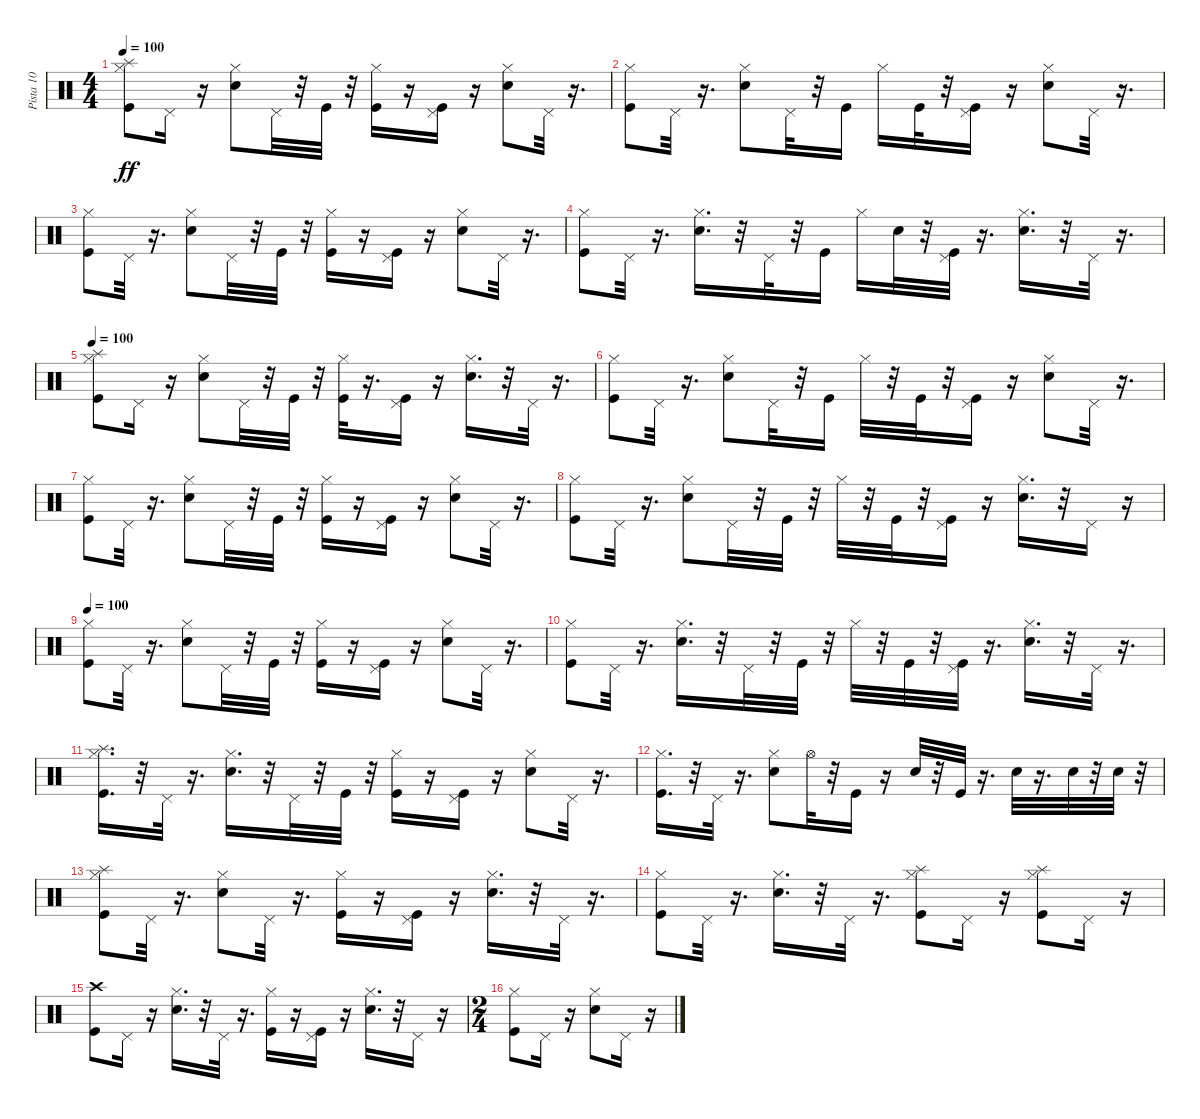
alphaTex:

\track ("Pista 10" "Pista 10") {instrument percussion}
\staff {score}
\articulation defaults
\ts (4 4)
\tempo 100
\clef neutral
\ks c
("Kick (hit)" "Hi-Hat (closed)" "Splash (hit)").8{dy ff} "Pedal Hi-Hat (hit)".16 r.16 ("Snare (hit) 2" "Hi-Hat (closed)").8 "Pedal Hi-Hat (hit)".32 r.32 "Kick (hit)".32 r.32 ("Kick (hit)" "Hi-Hat (closed)").16 r.16 ("Kick (hit)" "Pedal Hi-Hat (hit)").16 r.16 ("Snare (hit) 2" "Hi-Hat (closed)").8 "Pedal Hi-Hat (hit)".32 r.16{d} |
("Kick (hit)" "Hi-Hat (closed)").8 "Pedal Hi-Hat (hit)".32 r.16{d} ("Snare (hit) 2" "Hi-Hat (closed)").8 "Pedal Hi-Hat (hit)".32 r.32 "Kick (hit)".16 "Hi-Hat (closed)".16 "Kick (hit)".32 r.32 ("Kick (hit)" "Pedal Hi-Hat (hit)").16 r.16 ("Snare (hit) 2" "Hi-Hat (closed)").8 "Pedal Hi-Hat (hit)".32 r.16{d} |
("Kick (hit)" "Hi-Hat (closed)").8 "Pedal Hi-Hat (hit)".32 r.16{d} ("Snare (hit) 2" "Hi-Hat (closed)").8 "Pedal Hi-Hat (hit)".32 r.32 "Kick (hit)".32 r.32 ("Kick (hit)" "Hi-Hat (closed)").16 r.16 ("Kick (hit)" "Pedal Hi-Hat (hit)").16 r.16 ("Snare (hit) 2" "Hi-Hat (closed)").8 "Pedal Hi-Hat (hit)".32 r.16{d} |
("Kick (hit)" "Hi-Hat (closed)").8 "Pedal Hi-Hat (hit)".32 r.16{d} ("Snare (hit) 2" "Hi-Hat (closed)").16{d} r.32 "Pedal Hi-Hat (hit)".32 r.32 "Kick (hit)".16 "Hi-Hat (closed)".16 "Snare (hit) 2".32 r.32 ("Kick (hit)" "Pedal Hi-Hat (hit)").32 r.16{d} ("Snare (hit) 2" "Hi-Hat (closed)").16{d} r.32 "Pedal Hi-Hat (hit)".32 r.16{d} |
\tempo 100
("Kick (hit)" "Hi-Hat (closed)" "Splash (hit)").8 "Pedal Hi-Hat (hit)".16 r.16 ("Snare (hit) 2" "Hi-Hat (closed)").8 "Pedal Hi-Hat (hit)".32 r.32 "Kick (hit)".32 r.32 ("Kick (hit)" "Hi-Hat (closed)").32 r.16{d} ("Kick (hit)" "Pedal Hi-Hat (hit)").16 r.16 ("Snare (hit) 2" "Hi-Hat (closed)").16{d} r.32 "Pedal Hi-Hat (hit)".32 r.16{d} |
("Kick (hit)" "Hi-Hat (closed)").8 "Pedal Hi-Hat (hit)".32 r.16{d} ("Snare (hit) 2" "Hi-Hat (closed)").8 "Pedal Hi-Hat (hit)".32 r.32 "Kick (hit)".16 "Hi-Hat (closed)".32 r.32 "Kick (hit)".32 r.32 ("Kick (hit)" "Pedal Hi-Hat (hit)").16 r.16 ("Snare (hit) 2" "Hi-Hat (closed)").8 "Pedal Hi-Hat (hit)".32 r.16{d} |
("Kick (hit)" "Hi-Hat (closed)").8 "Pedal Hi-Hat (hit)".32 r.16{d} ("Snare (hit) 2" "Hi-Hat (closed)").8 "Pedal Hi-Hat (hit)".32 r.32 "Kick (hit)".32 r.32 ("Kick (hit)" "Hi-Hat (closed)").16 r.16 ("Kick (hit)" "Pedal Hi-Hat (hit)").16 r.16 ("Snare (hit) 2" "Hi-Hat (closed)").8 "Pedal Hi-Hat (hit)".32 r.16{d} |
("Kick (hit)" "Hi-Hat (closed)").8 "Pedal Hi-Hat (hit)".32 r.16{d} ("Snare (hit) 2" "Hi-Hat (closed)").8 "Pedal Hi-Hat (hit)".32 r.32 "Kick (hit)".32 r.32 "Hi-Hat (closed)".32 r.32 "Kick (hit)".32 r.32 ("Kick (hit)" "Pedal Hi-Hat (hit)").16 r.16 ("Snare (hit) 2" "Hi-Hat (closed)").16{d} r.32 "Pedal Hi-Hat (hit)".16 r.16 |
\tempo 100
("Kick (hit)" "Hi-Hat (closed)").8 "Pedal Hi-Hat (hit)".32 r.16{d} ("Snare (hit) 2" "Hi-Hat (closed)").8 "Pedal Hi-Hat (hit)".32 r.32 "Kick (hit)".32 r.32 ("Kick (hit)" "Hi-Hat (closed)").16 r.16 ("Kick (hit)" "Pedal Hi-Hat (hit)").16 r.16 ("Snare (hit) 2" "Hi-Hat (closed)").8 "Pedal Hi-Hat (hit)".32 r.16{d} |
("Kick (hit)" "Hi-Hat (closed)").8 "Pedal Hi-Hat (hit)".32 r.16{d} ("Snare (hit) 2" "Hi-Hat (closed)").16{d} r.32 "Pedal Hi-Hat (hit)".32 r.32 "Kick (hit)".32 r.32 "Hi-Hat (closed)".32 r.32 "Kick (hit)".32 r.32 ("Kick (hit)" "Pedal Hi-Hat (hit)").32 r.16{d} ("Snare (hit) 2" "Hi-Hat (closed)").16{d} r.32 "Pedal Hi-Hat (hit)".32 r.16{d} |
("Kick (hit)" "Splash (hit)" "Hi-Hat (closed)").16{d} r.32 "Pedal Hi-Hat (hit)".32 r.16{d} ("Snare (hit) 2" "Hi-Hat (closed)").16{d} r.32 "Pedal Hi-Hat (hit)".32 r.32 "Kick (hit)".32 r.32 ("Kick (hit)" "Hi-Hat (closed)").16 r.16 ("Kick (hit)" "Pedal Hi-Hat (hit)").16 r.16 ("Snare (hit) 2" "Hi-Hat (closed)").8 "Pedal Hi-Hat (hit)".32 r.16{d} |
("Kick (hit)" "Hi-Hat (closed)").16{d} r.32 "Pedal Hi-Hat (hit)".32 r.16{d} ("Snare (hit) 2" "Hi-Hat (closed)").8 "Hi-Hat (open)".32 r.32 "Kick (hit)".16 r.16 "Snare (hit) 2".32 r.32 "Kick (hit)".32 r.16{d} "Snare (hit) 2".32 r.16{d} "Snare (hit) 2".32 r.32 "Snare (hit) 2".32 r.32 |
("Splash (hit)" "Hi-Hat (closed)" "Kick (hit)").8 "Pedal Hi-Hat (hit)".32 r.16{d} ("Hi-Hat (closed)" "Snare (hit) 2").8 "Pedal Hi-Hat (hit)".32 r.16{d} ("Hi-Hat (closed)" "Kick (hit)").16 r.16 ("Pedal Hi-Hat (hit)" "Kick (hit)").16 r.16 ("Hi-Hat (closed)" "Snare (hit) 2").16{d} r.32 "Pedal Hi-Hat (hit)".32 r.16{d} |
("Hi-Hat (closed)" "Kick (hit)").8 "Pedal Hi-Hat (hit)".32 r.16{d} ("Hi-Hat (closed)" "Snare (hit) 2").16{d} r.32 "Pedal Hi-Hat (hit)".32 r.16{d} ("Splash (hit)" "Hi-Hat (closed)" "Kick (hit)").8 "Pedal Hi-Hat (hit)".16 r.16 ("Hi-Hat (closed)" "Splash (hit)" "Kick (hit)").8 "Pedal Hi-Hat (hit)".16 r.16 |
("Crash high (hit)" "Kick (hit)").8 "Pedal Hi-Hat (hit)".16 r.16 ("Hi-Hat (closed)" "Snare (hit) 2").16{d} r.32 "Pedal Hi-Hat (hit)".32 r.16{d} ("Hi-Hat (closed)" "Kick (hit)").16 r.16 ("Pedal Hi-Hat (hit)" "Kick (hit)").16 r.16 ("Hi-Hat (closed)" "Snare (hit) 2").16{d} r.32 "Pedal Hi-Hat (hit)".16 r.16 |
\ts (2 4)
("Hi-Hat (closed)" "Kick (hit)").8 "Pedal Hi-Hat (hit)".16 r.16 ("Hi-Hat (closed)" "Snare (hit) 2").8 "Pedal Hi-Hat (hit)".16 r.16
